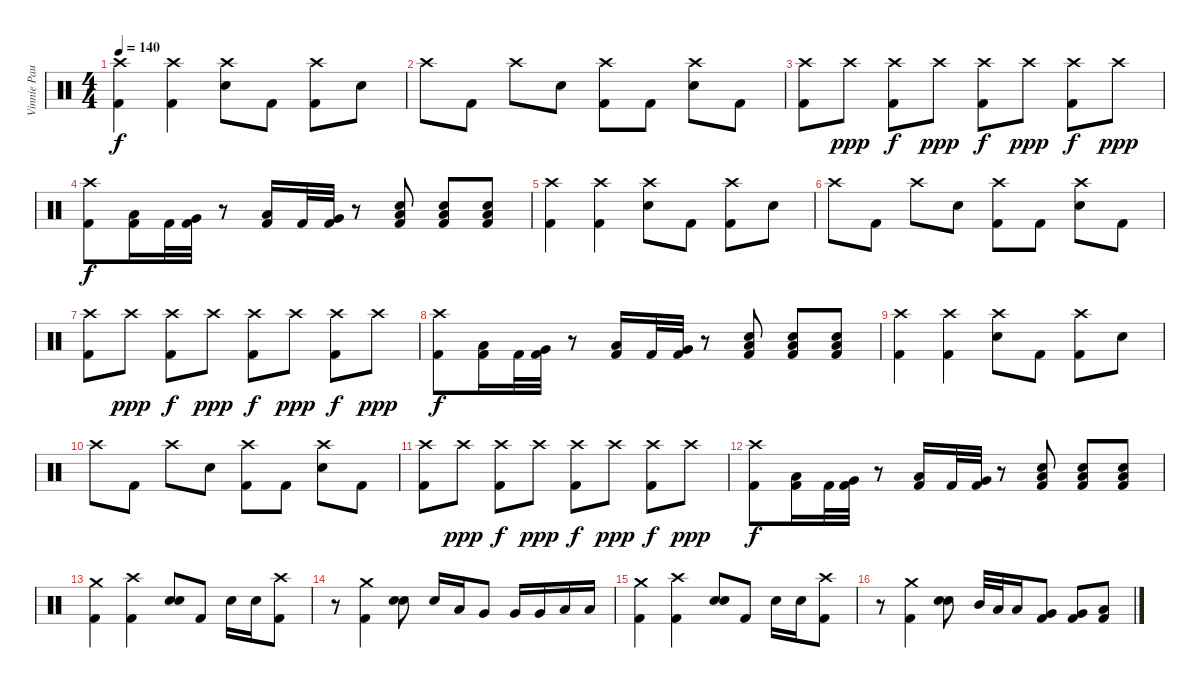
\track ("Vinnie Paul" "Vinnie Pau") {instrument percussion}
\staff {score}
\articulation defaults
\ts (4 4)
\tempo 140
\clef neutral
\ks c
("Crash high (hit)" "Kick (hit) 2").4{dy f} ("Crash high (hit)" "Kick (hit) 2").4 ("Crash high (hit)" "Snare (hit) 2").8 "Kick (hit) 2".8 ("Crash high (hit)" "Kick (hit) 2").8 "Snare (hit) 2".8 |
"Crash high (hit)".8 "Kick (hit) 2".8 "Crash high (hit)".8 "Snare (hit) 2".8 ("Crash high (hit)" "Kick (hit) 2").8 "Kick (hit) 2".8 ("Crash high (hit)" "Snare (hit) 2").8 "Kick (hit) 2".8 |
("Crash high (hit)" "Kick (hit) 2").8 "Crash high (hit)".8{dy ppp} ("Crash high (hit)" "Kick (hit) 2").8{dy f} "Crash high (hit)".8{dy ppp} ("Crash high (hit)" "Kick (hit) 2").8{dy f} "Crash high (hit)".8{dy ppp} ("Crash high (hit)" "Kick (hit) 2").8{dy f} "Crash high (hit)".8{dy ppp} |
("Crash high (hit)" "Kick (hit) 2").8{dy f} ("Low Tom (hit)" "Kick (hit) 2").16 "Kick (hit) 2".32 ("Very Low Tom (hit)" "Kick (hit) 2").32 r.8 ("Low Tom (hit)" "Kick (hit) 2").16 "Kick (hit) 2".32 ("Very Low Tom (hit)" "Kick (hit) 2").32 r.8 ("Low Floor Tom (hit)" "Snare (hit) 2" "Kick (hit) 2").8 ("Low Floor Tom (hit)" "Snare (hit) 2" "Kick (hit) 2").8 ("Low Floor Tom (hit)" "Snare (hit) 2" "Kick (hit) 2").8 |
("Crash high (hit)" "Kick (hit) 2").4 ("Crash high (hit)" "Kick (hit) 2").4 ("Crash high (hit)" "Snare (hit) 2").8 "Kick (hit) 2".8 ("Crash high (hit)" "Kick (hit) 2").8 "Snare (hit) 2".8 |
"Crash high (hit)".8 "Kick (hit) 2".8 "Crash high (hit)".8 "Snare (hit) 2".8 ("Crash high (hit)" "Kick (hit) 2").8 "Kick (hit) 2".8 ("Crash high (hit)" "Snare (hit) 2").8 "Kick (hit) 2".8 |
("Crash high (hit)" "Kick (hit) 2").8 "Crash high (hit)".8{dy ppp} ("Crash high (hit)" "Kick (hit) 2").8{dy f} "Crash high (hit)".8{dy ppp} ("Crash high (hit)" "Kick (hit) 2").8{dy f} "Crash high (hit)".8{dy ppp} ("Crash high (hit)" "Kick (hit) 2").8{dy f} "Crash high (hit)".8{dy ppp} |
("Crash high (hit)" "Kick (hit) 2").8{dy f} ("Low Tom (hit)" "Kick (hit) 2").16 "Kick (hit) 2".32 ("Very Low Tom (hit)" "Kick (hit) 2").32 r.8 ("Low Tom (hit)" "Kick (hit) 2").16 "Kick (hit) 2".32 ("Very Low Tom (hit)" "Kick (hit) 2").32 r.8 ("Low Floor Tom (hit)" "Snare (hit) 2" "Kick (hit) 2").8 ("Low Floor Tom (hit)" "Snare (hit) 2" "Kick (hit) 2").8 ("Low Floor Tom (hit)" "Snare (hit) 2" "Kick (hit) 2").8 |
("Crash high (hit)" "Kick (hit) 2").4 ("Crash high (hit)" "Kick (hit) 2").4 ("Crash high (hit)" "Snare (hit) 2").8 "Kick (hit) 2".8 ("Crash high (hit)" "Kick (hit) 2").8 "Snare (hit) 2".8 |
"Crash high (hit)".8 "Kick (hit) 2".8 "Crash high (hit)".8 "Snare (hit) 2".8 ("Crash high (hit)" "Kick (hit) 2").8 "Kick (hit) 2".8 ("Crash high (hit)" "Snare (hit) 2").8 "Kick (hit) 2".8 |
("Crash high (hit)" "Kick (hit) 2").8 "Crash high (hit)".8{dy ppp} ("Crash high (hit)" "Kick (hit) 2").8{dy f} "Crash high (hit)".8{dy ppp} ("Crash high (hit)" "Kick (hit) 2").8{dy f} "Crash high (hit)".8{dy ppp} ("Crash high (hit)" "Kick (hit) 2").8{dy f} "Crash high (hit)".8{dy ppp} |
("Crash high (hit)" "Kick (hit) 2").8{dy f} ("Low Tom (hit)" "Kick (hit) 2").16 "Kick (hit) 2".32 ("Very Low Tom (hit)" "Kick (hit) 2").32 r.8 ("Low Tom (hit)" "Kick (hit) 2").16 "Kick (hit) 2".32 ("Very Low Tom (hit)" "Kick (hit) 2").32 r.8 ("Low Floor Tom (hit)" "Snare (hit) 2" "Kick (hit) 2").8 ("Low Floor Tom (hit)" "Snare (hit) 2" "Kick (hit) 2").8 ("Low Floor Tom (hit)" "Snare (hit) 2" "Kick (hit) 2").8 |
("Crash medium (hit)" "Kick (hit) 2").4 ("Crash high (hit)" "Kick (hit) 2").4 ("Snare (hit) 2" "Snare (hit) 2").8{bd 120} "Kick (hit) 2".8 "Snare (hit) 2".16 "Snare (hit) 2".16 ("Crash high (hit)" "Kick (hit) 2").8 |
r.8 ("Crash medium (hit)" "Kick (hit) 2").4 ("Snare (hit) 2" "Snare (hit) 2").8{bd 120} "Snare (hit) 2".16 "Low Tom (hit)".16 "Very Low Tom (hit)".8 "Very Low Tom (hit)".16 "Very Low Tom (hit)".16 "Low Floor Tom (hit)".16 "Low Floor Tom (hit)".16 |
("Crash medium (hit)" "Kick (hit) 2").4 ("Crash high (hit)" "Kick (hit) 2").4 ("Snare (hit) 2" "Snare (hit) 2").8{bd 120} "Kick (hit) 2".8 "Snare (hit) 2".16 "Snare (hit) 2".16 ("Crash high (hit)" "Kick (hit) 2").8 |
r.8 ("Crash medium (hit)" "Kick (hit) 2").4 ("Snare (hit) 2" "Snare (hit) 2").8{bd 120} "Mid Tom (hit)".32 "Low Tom (hit)".32 "Low Tom (hit)".16 ("Very Low Tom (hit)" "Kick (hit) 2").8 ("Very Low Tom (hit)" "Kick (hit) 2").8 ("Low Floor Tom (hit)" "Kick (hit) 2").8
